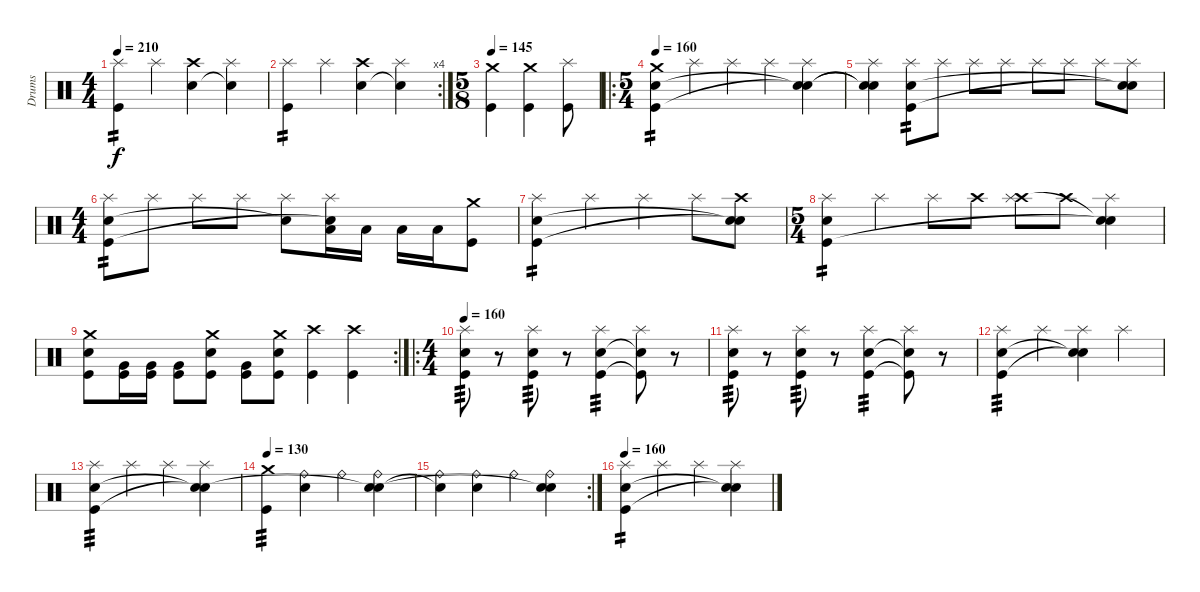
\track ("Drums" "Drums") {instrument percussion}
\staff {score}
\articulation defaults
\ts (4 4)
\tempo 210
\clef neutral
\ks c
("Splash (hit)" "Kick (hit)").4{tp 2 dy f} "Splash (hit)".4 ("Crash high (hit)" "Electric Snare (hit)").4 ("Splash (hit)" "Snare (hit)"{t}).4 |
\rc 4
("Splash (hit)" "Kick (hit)").4{tp 2} "Splash (hit)".4 ("Crash high (hit)" "Electric Snare (hit)").4 ("Splash (hit)" "Snare (hit)"{t}).4 |
\ts (5 8)
\tempo 145
("Crash medium (hit)" "Kick (hit)").4 ("Crash medium (hit)" "Kick (hit)").4 ("Splash (hit)" "Kick (hit)").8 |
\ro
\ts (5 4)
\tempo 160
("Crash medium (hit)" "Electric Snare (hit)" "Kick (hit)").4{tp 2} "Splash (hit)".4 "Splash (hit)".4 "Splash (hit)".4 ("Splash (hit)" "Snare (hit)"{t} "Snare (hit)"{t}).4 |
("Splash (hit)" "Snare (hit)"{t} "Snare (hit)"{t}).4 ("Splash (hit)" "Electric Snare (hit)" "Kick (hit)").8{tp 2} "Splash (hit)".8 "Splash (hit)".8 "Splash (hit)".8 "Splash (hit)".8 "Splash (hit)".8 "Splash (hit)".8 ("Splash (hit)" "Snare (hit)"{t} "Snare (hit)"{t}).8 |
\ts (4 4)
("Splash (hit)" "Electric Snare (hit)" "Kick (hit)").8{tp 2} "Splash (hit)".8 "Splash (hit)".8 "Splash (hit)".8 ("Splash (hit)" "Snare (hit)"{t}).8 ("Splash (hit)" "Low Tom (hit)" "Snare (hit)"{t}).16 "Low Tom (hit)".16 "Low Floor Tom (hit)".16 "Low Floor Tom (hit)".16 ("Crash medium (hit)" "Kick (hit)").8 |
("Splash (hit)" "Electric Snare (hit)" "Kick (hit)").4{tp 2} "Splash (hit)".4 "Splash (hit)".4 "Splash (hit)".8 ("Crash high (hit)" "Snare (hit)"{t} "Snare (hit)"{t}).8 |
\ts (5 4)
("Splash (hit)" "Electric Snare (hit)" "Kick (hit)").4{tp 2} "Splash (hit)".4 "Splash (hit)".8 "Crash high (hit)".8 ("Crash high (hit)" "Splash (hit)").8 "Crash high (hit)".8 ("Splash (hit)" "Snare (hit)"{t} "Snare (hit)"{t}).4 |
\rc 2
("Crash medium (hit)" "Electric Snare (hit)" "Kick (hit)").8 ("Very Low Tom (hit)" "Kick (hit)").16 ("Very Low Tom (hit)" "Kick (hit)").16 ("Very Low Tom (hit)" "Kick (hit)").8 ("Crash medium (hit)" "Electric Snare (hit)" "Kick (hit)").8 ("Very Low Tom (hit)" "Kick (hit)").8 ("Crash medium (hit)" "Electric Snare (hit)" "Kick (hit)").8 ("Crash high (hit)" "Kick (hit)").4 ("Crash high (hit)" "Kick (hit)").4 |
\ro
\ts (4 4)
\tempo 160
("Splash (hit)" "Electric Snare (hit)" "Kick (hit)").8{tp 3} r.8 ("Splash (hit)" "Electric Snare (hit)" "Kick (hit)").8{tp 3} r.8 ("Splash (hit)" "Electric Snare (hit)" "Kick (hit)").4{tp 3} ("Splash (hit)" "Electric Snare (hit)"{t} "Kick (hit)"{t}).8 r.8 |
("Splash (hit)" "Electric Snare (hit)" "Kick (hit)").8{tp 3} r.8 ("Splash (hit)" "Electric Snare (hit)" "Kick (hit)").8{tp 3} r.8 ("Splash (hit)" "Electric Snare (hit)" "Kick (hit)").4{tp 3} ("Splash (hit)" "Electric Snare (hit)"{t} "Kick (hit)"{t}).8 r.8 |
("Splash (hit)" "Electric Snare (hit)" "Kick (hit)").4{tp 3} "Splash (hit)".4 ("Splash (hit)" "Snare (hit)"{t} "Snare (hit)"{t}).4 "Splash (hit)".4 |
("Splash (hit)" "Electric Snare (hit)" "Kick (hit)").4{tp 3} "Splash (hit)".4 "Splash (hit)".4 ("Splash (hit)" "Snare (hit)"{t} "Snare (hit)"{t}).4 |
\tempo 130
("Crash medium (hit)" "Kick (hit)").4{tp 3} ("Ride (bell)" "Electric Snare (hit)").4 "Ride (bell)".4 ("Ride (bell)" "Electric Snare (hit)" "Snare (hit)"{t}).4 |
\rc 2
("Ride (bell)" "Snare (hit)"{t}).4 ("Ride (bell)" "Electric Snare (hit)").4 "Ride (bell)".4 ("Ride (bell)" "Electric Snare (hit)" "Snare (hit)"{t}).4 |
\tempo 160
("Splash (hit)" "Electric Snare (hit)" "Kick (hit)").4{tp 2} "Splash (hit)".4 "Splash (hit)".4 ("Splash (hit)" "Snare (hit)"{t} "Snare (hit)"{t}).4
